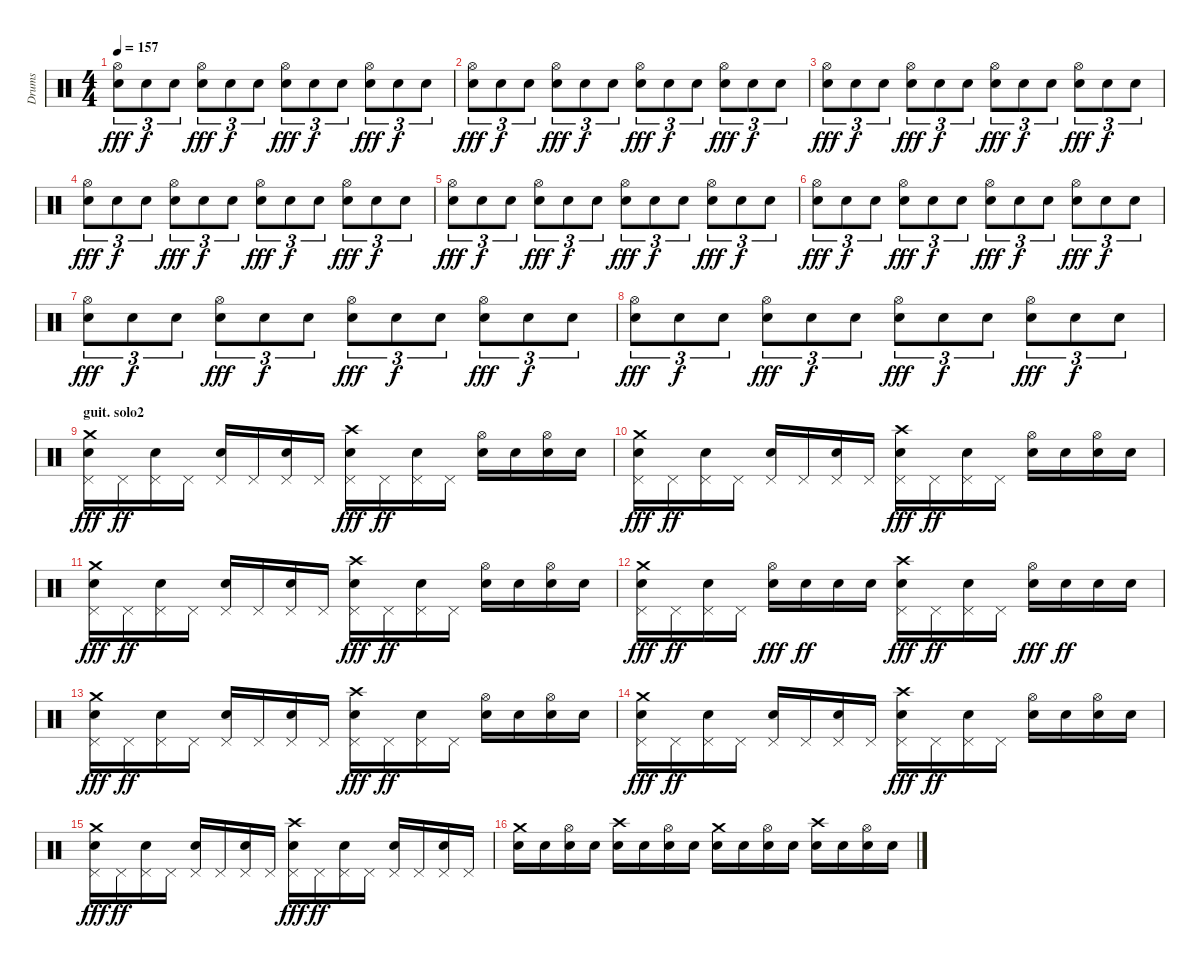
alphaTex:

\track ("Drums" "Drums") {instrument percussion}
\staff {score}
\articulation defaults
\ts (4 4)
\tempo 157
\clef neutral
\ks c
("Hi-Hat (open)" "Electric Snare (hit)").8{tu (3 2) dy fff} "Electric Snare (hit)".8{tu (3 2) dy f} "Electric Snare (hit)".8{tu (3 2)} ("Hi-Hat (open)" "Electric Snare (hit)").8{tu (3 2) dy fff} "Electric Snare (hit)".8{tu (3 2) dy f} "Electric Snare (hit)".8{tu (3 2)} ("Hi-Hat (open)" "Electric Snare (hit)").8{tu (3 2) dy fff} "Electric Snare (hit)".8{tu (3 2) dy f} "Electric Snare (hit)".8{tu (3 2)} ("Hi-Hat (open)" "Electric Snare (hit)").8{tu (3 2) dy fff} "Electric Snare (hit)".8{tu (3 2) dy f} "Electric Snare (hit)".8{tu (3 2)} |
("Hi-Hat (open)" "Electric Snare (hit)").8{tu (3 2) dy fff} "Electric Snare (hit)".8{tu (3 2) dy f} "Electric Snare (hit)".8{tu (3 2)} ("Hi-Hat (open)" "Electric Snare (hit)").8{tu (3 2) dy fff} "Electric Snare (hit)".8{tu (3 2) dy f} "Electric Snare (hit)".8{tu (3 2)} ("Hi-Hat (open)" "Electric Snare (hit)").8{tu (3 2) dy fff} "Electric Snare (hit)".8{tu (3 2) dy f} "Electric Snare (hit)".8{tu (3 2)} ("Hi-Hat (open)" "Electric Snare (hit)").8{tu (3 2) dy fff} "Electric Snare (hit)".8{tu (3 2) dy f} "Electric Snare (hit)".8{tu (3 2)} |
("Hi-Hat (open)" "Electric Snare (hit)").8{tu (3 2) dy fff} "Electric Snare (hit)".8{tu (3 2) dy f} "Electric Snare (hit)".8{tu (3 2)} ("Hi-Hat (open)" "Electric Snare (hit)").8{tu (3 2) dy fff} "Electric Snare (hit)".8{tu (3 2) dy f} "Electric Snare (hit)".8{tu (3 2)} ("Hi-Hat (open)" "Electric Snare (hit)").8{tu (3 2) dy fff} "Electric Snare (hit)".8{tu (3 2) dy f} "Electric Snare (hit)".8{tu (3 2)} ("Hi-Hat (open)" "Electric Snare (hit)").8{tu (3 2) dy fff} "Electric Snare (hit)".8{tu (3 2) dy f} "Electric Snare (hit)".8{tu (3 2)} |
("Hi-Hat (open)" "Electric Snare (hit)").8{tu (3 2) dy fff} "Electric Snare (hit)".8{tu (3 2) dy f} "Electric Snare (hit)".8{tu (3 2)} ("Hi-Hat (open)" "Electric Snare (hit)").8{tu (3 2) dy fff} "Electric Snare (hit)".8{tu (3 2) dy f} "Electric Snare (hit)".8{tu (3 2)} ("Hi-Hat (open)" "Electric Snare (hit)").8{tu (3 2) dy fff} "Electric Snare (hit)".8{tu (3 2) dy f} "Electric Snare (hit)".8{tu (3 2)} ("Hi-Hat (open)" "Electric Snare (hit)").8{tu (3 2) dy fff} "Electric Snare (hit)".8{tu (3 2) dy f} "Electric Snare (hit)".8{tu (3 2)} |
("Hi-Hat (open)" "Electric Snare (hit)").8{tu (3 2) dy fff} "Electric Snare (hit)".8{tu (3 2) dy f} "Electric Snare (hit)".8{tu (3 2)} ("Hi-Hat (open)" "Electric Snare (hit)").8{tu (3 2) dy fff} "Electric Snare (hit)".8{tu (3 2) dy f} "Electric Snare (hit)".8{tu (3 2)} ("Hi-Hat (open)" "Electric Snare (hit)").8{tu (3 2) dy fff} "Electric Snare (hit)".8{tu (3 2) dy f} "Electric Snare (hit)".8{tu (3 2)} ("Hi-Hat (open)" "Electric Snare (hit)").8{tu (3 2) dy fff} "Electric Snare (hit)".8{tu (3 2) dy f} "Electric Snare (hit)".8{tu (3 2)} |
("Hi-Hat (open)" "Electric Snare (hit)").8{tu (3 2) dy fff} "Electric Snare (hit)".8{tu (3 2) dy f} "Electric Snare (hit)".8{tu (3 2)} ("Hi-Hat (open)" "Electric Snare (hit)").8{tu (3 2) dy fff} "Electric Snare (hit)".8{tu (3 2) dy f} "Electric Snare (hit)".8{tu (3 2)} ("Hi-Hat (open)" "Electric Snare (hit)").8{tu (3 2) dy fff} "Electric Snare (hit)".8{tu (3 2) dy f} "Electric Snare (hit)".8{tu (3 2)} ("Hi-Hat (open)" "Electric Snare (hit)").8{tu (3 2) dy fff} "Electric Snare (hit)".8{tu (3 2) dy f} "Electric Snare (hit)".8{tu (3 2)} |
("Hi-Hat (open)" "Electric Snare (hit)").8{tu (3 2) dy fff} "Electric Snare (hit)".8{tu (3 2) dy f} "Electric Snare (hit)".8{tu (3 2)} ("Hi-Hat (open)" "Electric Snare (hit)").8{tu (3 2) dy fff} "Electric Snare (hit)".8{tu (3 2) dy f} "Electric Snare (hit)".8{tu (3 2)} ("Hi-Hat (open)" "Electric Snare (hit)").8{tu (3 2) dy fff} "Electric Snare (hit)".8{tu (3 2) dy f} "Electric Snare (hit)".8{tu (3 2)} ("Hi-Hat (open)" "Electric Snare (hit)").8{tu (3 2) dy fff} "Electric Snare (hit)".8{tu (3 2) dy f} "Electric Snare (hit)".8{tu (3 2)} |
("Hi-Hat (open)" "Electric Snare (hit)").8{tu (3 2) dy fff} "Electric Snare (hit)".8{tu (3 2) dy f} "Electric Snare (hit)".8{tu (3 2)} ("Hi-Hat (open)" "Electric Snare (hit)").8{tu (3 2) dy fff} "Electric Snare (hit)".8{tu (3 2) dy f} "Electric Snare (hit)".8{tu (3 2)} ("Hi-Hat (open)" "Electric Snare (hit)").8{tu (3 2) dy fff} "Electric Snare (hit)".8{tu (3 2) dy f} "Electric Snare (hit)".8{tu (3 2)} ("Hi-Hat (open)" "Electric Snare (hit)").8{tu (3 2) dy fff} "Electric Snare (hit)".8{tu (3 2) dy f} "Electric Snare (hit)".8{tu (3 2)} |
\section ("" "guit. solo2")
("Electric Snare (hit)" "Pedal Hi-Hat (hit)" "Crash medium (hit)").16{dy fff} "Pedal Hi-Hat (hit)".16{dy ff} ("Electric Snare (hit)" "Pedal Hi-Hat (hit)").16 "Pedal Hi-Hat (hit)".16 ("Snare (hit) 2" "Pedal Hi-Hat (hit)").16 "Pedal Hi-Hat (hit)".16 ("Electric Snare (hit)" "Pedal Hi-Hat (hit)").16 "Pedal Hi-Hat (hit)".16 ("Snare (hit) 2" "Pedal Hi-Hat (hit)" "Crash high (hit)").16{dy fff} "Pedal Hi-Hat (hit)".16{dy ff} ("Electric Snare (hit)" "Pedal Hi-Hat (hit)").16 "Pedal Hi-Hat (hit)".16 ("Hi-Hat (open)" "Electric Snare (hit)").16 "Electric Snare (hit)".16 ("Hi-Hat (open)" "Electric Snare (hit)").16 "Electric Snare (hit)".16 |
("Electric Snare (hit)" "Pedal Hi-Hat (hit)" "Crash medium (hit)").16{dy fff} "Pedal Hi-Hat (hit)".16{dy ff} ("Electric Snare (hit)" "Pedal Hi-Hat (hit)").16 "Pedal Hi-Hat (hit)".16 ("Snare (hit) 2" "Pedal Hi-Hat (hit)").16 "Pedal Hi-Hat (hit)".16 ("Electric Snare (hit)" "Pedal Hi-Hat (hit)").16 "Pedal Hi-Hat (hit)".16 ("Snare (hit) 2" "Pedal Hi-Hat (hit)" "Crash high (hit)").16{dy fff} "Pedal Hi-Hat (hit)".16{dy ff} ("Electric Snare (hit)" "Pedal Hi-Hat (hit)").16 "Pedal Hi-Hat (hit)".16 ("Hi-Hat (open)" "Electric Snare (hit)").16 "Electric Snare (hit)".16 ("Hi-Hat (open)" "Electric Snare (hit)").16 "Electric Snare (hit)".16 |
("Electric Snare (hit)" "Pedal Hi-Hat (hit)" "Crash medium (hit)").16{dy fff} "Pedal Hi-Hat (hit)".16{dy ff} ("Electric Snare (hit)" "Pedal Hi-Hat (hit)").16 "Pedal Hi-Hat (hit)".16 ("Snare (hit) 2" "Pedal Hi-Hat (hit)").16 "Pedal Hi-Hat (hit)".16 ("Electric Snare (hit)" "Pedal Hi-Hat (hit)").16 "Pedal Hi-Hat (hit)".16 ("Snare (hit) 2" "Pedal Hi-Hat (hit)" "Crash high (hit)").16{dy fff} "Pedal Hi-Hat (hit)".16{dy ff} ("Electric Snare (hit)" "Pedal Hi-Hat (hit)").16 "Pedal Hi-Hat (hit)".16 ("Hi-Hat (open)" "Electric Snare (hit)").16 "Electric Snare (hit)".16 ("Hi-Hat (open)" "Electric Snare (hit)").16 "Electric Snare (hit)".16 |
("Electric Snare (hit)" "Pedal Hi-Hat (hit)" "Crash medium (hit)").16{dy fff} "Pedal Hi-Hat (hit)".16{dy ff} ("Electric Snare (hit)" "Pedal Hi-Hat (hit)").16 "Pedal Hi-Hat (hit)".16 ("Electric Snare (hit)" "Hi-Hat (open)").16{dy fff} "Electric Snare (hit)".16{dy ff} "Electric Snare (hit)".16 "Electric Snare (hit)".16 ("Snare (hit) 2" "Pedal Hi-Hat (hit)" "Crash high (hit)").16{dy fff} "Pedal Hi-Hat (hit)".16{dy ff} ("Electric Snare (hit)" "Pedal Hi-Hat (hit)").16 "Pedal Hi-Hat (hit)".16 ("Electric Snare (hit)" "Hi-Hat (open)").16{dy fff} "Electric Snare (hit)".16{dy ff} "Electric Snare (hit)".16 "Electric Snare (hit)".16 |
("Electric Snare (hit)" "Pedal Hi-Hat (hit)" "Crash medium (hit)").16{dy fff} "Pedal Hi-Hat (hit)".16{dy ff} ("Electric Snare (hit)" "Pedal Hi-Hat (hit)").16 "Pedal Hi-Hat (hit)".16 ("Snare (hit) 2" "Pedal Hi-Hat (hit)").16 "Pedal Hi-Hat (hit)".16 ("Electric Snare (hit)" "Pedal Hi-Hat (hit)").16 "Pedal Hi-Hat (hit)".16 ("Snare (hit) 2" "Pedal Hi-Hat (hit)" "Crash high (hit)").16{dy fff} "Pedal Hi-Hat (hit)".16{dy ff} ("Electric Snare (hit)" "Pedal Hi-Hat (hit)").16 "Pedal Hi-Hat (hit)".16 ("Hi-Hat (open)" "Electric Snare (hit)").16 "Electric Snare (hit)".16 ("Hi-Hat (open)" "Electric Snare (hit)").16 "Electric Snare (hit)".16 |
("Electric Snare (hit)" "Pedal Hi-Hat (hit)" "Crash medium (hit)").16{dy fff} "Pedal Hi-Hat (hit)".16{dy ff} ("Electric Snare (hit)" "Pedal Hi-Hat (hit)").16 "Pedal Hi-Hat (hit)".16 ("Snare (hit) 2" "Pedal Hi-Hat (hit)").16 "Pedal Hi-Hat (hit)".16 ("Electric Snare (hit)" "Pedal Hi-Hat (hit)").16 "Pedal Hi-Hat (hit)".16 ("Snare (hit) 2" "Pedal Hi-Hat (hit)" "Crash high (hit)").16{dy fff} "Pedal Hi-Hat (hit)".16{dy ff} ("Electric Snare (hit)" "Pedal Hi-Hat (hit)").16 "Pedal Hi-Hat (hit)".16 ("Hi-Hat (open)" "Electric Snare (hit)").16 "Electric Snare (hit)".16 ("Hi-Hat (open)" "Electric Snare (hit)").16 "Electric Snare (hit)".16 |
("Electric Snare (hit)" "Pedal Hi-Hat (hit)" "Crash medium (hit)").16{dy fff} "Pedal Hi-Hat (hit)".16{dy ff} ("Electric Snare (hit)" "Pedal Hi-Hat (hit)").16 "Pedal Hi-Hat (hit)".16 ("Snare (hit) 2" "Pedal Hi-Hat (hit)").16 "Pedal Hi-Hat (hit)".16 ("Electric Snare (hit)" "Pedal Hi-Hat (hit)").16 "Pedal Hi-Hat (hit)".16 ("Snare (hit) 2" "Pedal Hi-Hat (hit)" "Crash high (hit)").16{dy fff} "Pedal Hi-Hat (hit)".16{dy ff} ("Electric Snare (hit)" "Pedal Hi-Hat (hit)").16 "Pedal Hi-Hat (hit)".16 ("Snare (hit) 2" "Pedal Hi-Hat (hit)").16 "Pedal Hi-Hat (hit)".16 ("Electric Snare (hit)" "Pedal Hi-Hat (hit)").16 "Pedal Hi-Hat (hit)".16 |
("Electric Snare (hit)" "Crash medium (hit)").16 "Electric Snare (hit)".16 ("Electric Snare (hit)" "Hi-Hat (open)").16 "Electric Snare (hit)".16 ("Electric Snare (hit)" "Crash high (hit)").16 "Electric Snare (hit)".16 ("Electric Snare (hit)" "Hi-Hat (open)").16 "Electric Snare (hit)".16 ("Electric Snare (hit)" "Crash medium (hit)").16 "Electric Snare (hit)".16 ("Electric Snare (hit)" "Hi-Hat (open)").16 "Electric Snare (hit)".16 ("Electric Snare (hit)" "Crash high (hit)").16 "Electric Snare (hit)".16 ("Electric Snare (hit)" "Hi-Hat (open)").16 "Electric Snare (hit)".16
